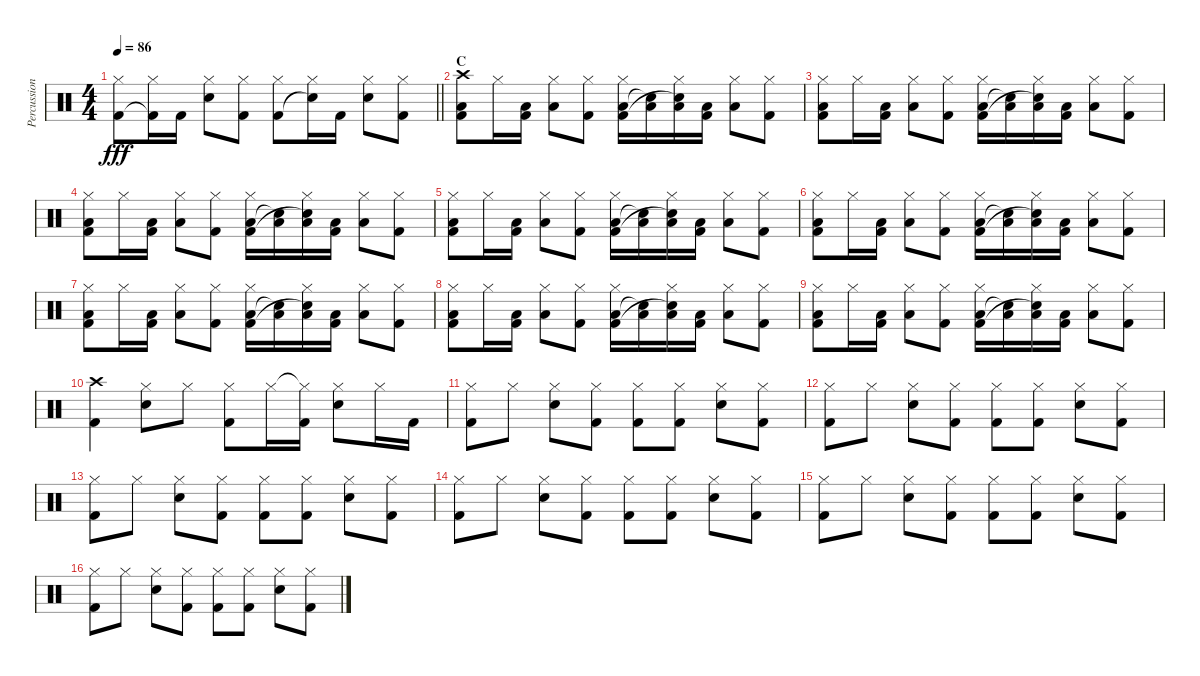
\track ("Percussion" "Percussion") {instrument percussion}
\staff {score}
\articulation defaults
\ts (4 4)
\tempo 86
\clef neutral
\barLineRight lightlight
\ks c
("Hi-Hat (closed)" "Kick (hit) 2").8{dy fff} ("Hi-Hat (closed)" "Kick (hit) 2"{t}).16 "Kick (hit) 2".16 ("Hi-Hat (closed)" "Electric Snare (hit)").8 ("Hi-Hat (closed)" "Kick (hit) 2").8 ("Hi-Hat (closed)" "Kick (hit) 2").8 ("Hi-Hat (closed)" "Snare (hit)"{t}).16 "Kick (hit) 2".16 ("Hi-Hat (closed)" "Electric Snare (hit)").8 ("Hi-Hat (closed)" "Kick (hit) 2").8 |
\section ("" "C")
("Crash high (hit)" "Low Tom (hit)" "Kick (hit) 2").8 "Hi-Hat (closed)".16 ("Low Tom (hit)" "Kick (hit) 2").16 ("Hi-Hat (closed)" "Low Tom (hit)").8 ("Hi-Hat (closed)" "Kick (hit) 2").8 ("Hi-Hat (closed)" "Low Tom (hit)" "Kick (hit) 2").16 ("Low Tom (hit)" "Snare (hit)"{t}).16 ("Hi-Hat (closed)" "Low Tom (hit)" "Snare (hit)"{t}).16 ("Low Tom (hit)" "Kick (hit) 2").16 ("Hi-Hat (closed)" "Low Tom (hit)").8 ("Hi-Hat (closed)" "Kick (hit) 2").8 |
("Hi-Hat (closed)" "Low Tom (hit)" "Kick (hit) 2").8 "Hi-Hat (closed)".16 ("Low Tom (hit)" "Kick (hit) 2").16 ("Hi-Hat (closed)" "Low Tom (hit)").8 ("Hi-Hat (closed)" "Kick (hit) 2").8 ("Hi-Hat (closed)" "Low Tom (hit)" "Kick (hit) 2").16 ("Low Tom (hit)" "Snare (hit)"{t}).16 ("Hi-Hat (closed)" "Low Tom (hit)" "Snare (hit)"{t}).16 ("Low Tom (hit)" "Kick (hit) 2").16 ("Hi-Hat (closed)" "Low Tom (hit)").8 ("Hi-Hat (closed)" "Kick (hit) 2").8 |
("Hi-Hat (closed)" "Low Tom (hit)" "Kick (hit) 2").8 "Hi-Hat (closed)".16 ("Low Tom (hit)" "Kick (hit) 2").16 ("Hi-Hat (closed)" "Low Tom (hit)").8 ("Hi-Hat (closed)" "Kick (hit) 2").8 ("Hi-Hat (closed)" "Low Tom (hit)" "Kick (hit) 2").16 ("Low Tom (hit)" "Snare (hit)"{t}).16 ("Hi-Hat (closed)" "Low Tom (hit)" "Snare (hit)"{t}).16 ("Low Tom (hit)" "Kick (hit) 2").16 ("Hi-Hat (closed)" "Low Tom (hit)").8 ("Hi-Hat (closed)" "Kick (hit) 2").8 |
("Hi-Hat (closed)" "Low Tom (hit)" "Kick (hit) 2").8 "Hi-Hat (closed)".16 ("Low Tom (hit)" "Kick (hit) 2").16 ("Hi-Hat (closed)" "Low Tom (hit)").8 ("Hi-Hat (closed)" "Kick (hit) 2").8 ("Hi-Hat (closed)" "Low Tom (hit)" "Kick (hit) 2").16 ("Low Tom (hit)" "Snare (hit)"{t}).16 ("Hi-Hat (closed)" "Low Tom (hit)" "Snare (hit)"{t}).16 ("Low Tom (hit)" "Kick (hit) 2").16 ("Hi-Hat (closed)" "Low Tom (hit)").8 ("Hi-Hat (closed)" "Kick (hit) 2").8 |
("Hi-Hat (closed)" "Low Tom (hit)" "Kick (hit) 2").8 "Hi-Hat (closed)".16 ("Low Tom (hit)" "Kick (hit) 2").16 ("Hi-Hat (closed)" "Low Tom (hit)").8 ("Hi-Hat (closed)" "Kick (hit) 2").8 ("Hi-Hat (closed)" "Low Tom (hit)" "Kick (hit) 2").16 ("Low Tom (hit)" "Snare (hit)"{t}).16 ("Hi-Hat (closed)" "Low Tom (hit)" "Snare (hit)"{t}).16 ("Low Tom (hit)" "Kick (hit) 2").16 ("Hi-Hat (closed)" "Low Tom (hit)").8 ("Hi-Hat (closed)" "Kick (hit) 2").8 |
("Hi-Hat (closed)" "Low Tom (hit)" "Kick (hit) 2").8 "Hi-Hat (closed)".16 ("Low Tom (hit)" "Kick (hit) 2").16 ("Hi-Hat (closed)" "Low Tom (hit)").8 ("Hi-Hat (closed)" "Kick (hit) 2").8 ("Hi-Hat (closed)" "Low Tom (hit)" "Kick (hit) 2").16 ("Low Tom (hit)" "Snare (hit)"{t}).16 ("Hi-Hat (closed)" "Low Tom (hit)" "Snare (hit)"{t}).16 ("Low Tom (hit)" "Kick (hit) 2").16 ("Hi-Hat (closed)" "Low Tom (hit)").8 ("Hi-Hat (closed)" "Kick (hit) 2").8 |
("Hi-Hat (closed)" "Low Tom (hit)" "Kick (hit) 2").8 "Hi-Hat (closed)".16 ("Low Tom (hit)" "Kick (hit) 2").16 ("Hi-Hat (closed)" "Low Tom (hit)").8 ("Hi-Hat (closed)" "Kick (hit) 2").8 ("Hi-Hat (closed)" "Low Tom (hit)" "Kick (hit) 2").16 ("Low Tom (hit)" "Snare (hit)"{t}).16 ("Hi-Hat (closed)" "Low Tom (hit)" "Snare (hit)"{t}).16 ("Low Tom (hit)" "Kick (hit) 2").16 ("Hi-Hat (closed)" "Low Tom (hit)").8 ("Hi-Hat (closed)" "Kick (hit) 2").8 |
("Hi-Hat (closed)" "Low Tom (hit)" "Kick (hit) 2").8 "Hi-Hat (closed)".16 ("Low Tom (hit)" "Kick (hit) 2").16 ("Hi-Hat (closed)" "Low Tom (hit)").8 ("Hi-Hat (closed)" "Kick (hit) 2").8 ("Hi-Hat (closed)" "Low Tom (hit)" "Kick (hit) 2").16 ("Low Tom (hit)" "Snare (hit)"{t}).16 ("Hi-Hat (closed)" "Low Tom (hit)" "Snare (hit)"{t}).16 ("Low Tom (hit)" "Kick (hit) 2").16 ("Hi-Hat (closed)" "Low Tom (hit)").8 ("Hi-Hat (closed)" "Kick (hit) 2").8 |
("Crash high (hit)" "Kick (hit) 2").4 ("Hi-Hat (closed)" "Electric Snare (hit)").8 "Hi-Hat (closed)".8 ("Hi-Hat (closed)" "Kick (hit) 2").8 "Hi-Hat (closed)".16 ("Hi-Hat (closed)"{t} "Kick (hit) 2").16 ("Hi-Hat (closed)" "Electric Snare (hit)").8 "Hi-Hat (closed)".16 "Kick (hit) 2".16 |
("Hi-Hat (closed)" "Kick (hit) 2").8 "Hi-Hat (closed)".8 ("Hi-Hat (closed)" "Electric Snare (hit)").8 ("Hi-Hat (closed)" "Kick (hit) 2").8 ("Hi-Hat (closed)" "Kick (hit) 2").8 ("Hi-Hat (closed)" "Kick (hit) 2").8 ("Hi-Hat (closed)" "Electric Snare (hit)").8 ("Hi-Hat (closed)" "Kick (hit) 2").8 |
("Hi-Hat (closed)" "Kick (hit) 2").8 "Hi-Hat (closed)".8 ("Hi-Hat (closed)" "Electric Snare (hit)").8 ("Hi-Hat (closed)" "Kick (hit) 2").8 ("Hi-Hat (closed)" "Kick (hit) 2").8 ("Hi-Hat (closed)" "Kick (hit) 2").8 ("Hi-Hat (closed)" "Electric Snare (hit)").8 ("Hi-Hat (closed)" "Kick (hit) 2").8 |
("Hi-Hat (closed)" "Kick (hit) 2").8 "Hi-Hat (closed)".8 ("Hi-Hat (closed)" "Electric Snare (hit)").8 ("Hi-Hat (closed)" "Kick (hit) 2").8 ("Hi-Hat (closed)" "Kick (hit) 2").8 ("Hi-Hat (closed)" "Kick (hit) 2").8 ("Hi-Hat (closed)" "Electric Snare (hit)").8 ("Hi-Hat (closed)" "Kick (hit) 2").8 |
("Hi-Hat (closed)" "Kick (hit) 2").8 "Hi-Hat (closed)".8 ("Hi-Hat (closed)" "Electric Snare (hit)").8 ("Hi-Hat (closed)" "Kick (hit) 2").8 ("Hi-Hat (closed)" "Kick (hit) 2").8 ("Hi-Hat (closed)" "Kick (hit) 2").8 ("Hi-Hat (closed)" "Electric Snare (hit)").8 ("Hi-Hat (closed)" "Kick (hit) 2").8 |
("Hi-Hat (closed)" "Kick (hit) 2").8 "Hi-Hat (closed)".8 ("Hi-Hat (closed)" "Electric Snare (hit)").8 ("Hi-Hat (closed)" "Kick (hit) 2").8 ("Hi-Hat (closed)" "Kick (hit) 2").8 ("Hi-Hat (closed)" "Kick (hit) 2").8 ("Hi-Hat (closed)" "Electric Snare (hit)").8 ("Hi-Hat (closed)" "Kick (hit) 2").8 |
("Hi-Hat (closed)" "Kick (hit) 2").8 "Hi-Hat (closed)".8 ("Hi-Hat (closed)" "Electric Snare (hit)").8 ("Hi-Hat (closed)" "Kick (hit) 2").8 ("Hi-Hat (closed)" "Kick (hit) 2").8 ("Hi-Hat (closed)" "Kick (hit) 2").8 ("Hi-Hat (closed)" "Electric Snare (hit)").8 ("Hi-Hat (closed)" "Kick (hit) 2").8
